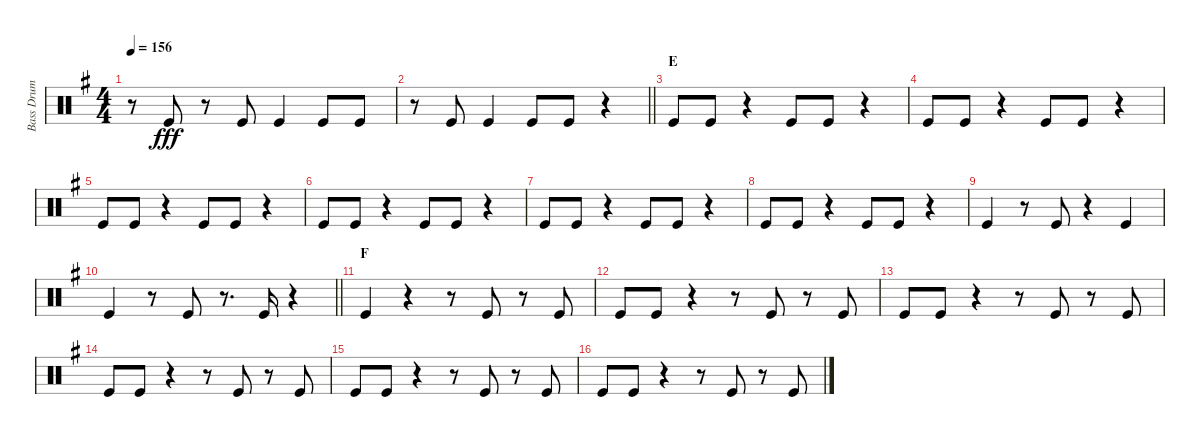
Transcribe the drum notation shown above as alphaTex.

\track ("Bass Drum" "Bass Drum") {instrument percussion}
\staff {score}
\articulation defaults
\ts (4 4)
\tempo 156
\clef neutral
\ks g
r.8{dy fff} "Kick (hit)".8 r.8 "Kick (hit)".8 "Kick (hit)".4 "Kick (hit)".8 "Kick (hit)".8 |
\barLineRight lightlight
r.8 "Kick (hit)".8 "Kick (hit)".4 "Kick (hit)".8 "Kick (hit)".8 r.4 |
\section ("" "E")
"Kick (hit)".8 "Kick (hit)".8 r.4 "Kick (hit)".8 "Kick (hit)".8 r.4 |
"Kick (hit)".8 "Kick (hit)".8 r.4 "Kick (hit)".8 "Kick (hit)".8 r.4 |
"Kick (hit)".8 "Kick (hit)".8 r.4 "Kick (hit)".8 "Kick (hit)".8 r.4 |
"Kick (hit)".8 "Kick (hit)".8 r.4 "Kick (hit)".8 "Kick (hit)".8 r.4 |
"Kick (hit)".8 "Kick (hit)".8 r.4 "Kick (hit)".8 "Kick (hit)".8 r.4 |
"Kick (hit)".8 "Kick (hit)".8 r.4 "Kick (hit)".8 "Kick (hit)".8 r.4 |
"Kick (hit)".4 r.8 "Kick (hit)".8 r.4 "Kick (hit)".4 |
\barLineRight lightlight "Kick (hit)".4
r.8 "Kick (hit)".8 r.8{d} "Kick (hit)".16 r.4 |
\section ("" "F")
"Kick (hit)".4 r.4 r.8 "Kick (hit)".8 r.8 "Kick (hit)".8 |
"Kick (hit)".8 "Kick (hit)".8 r.4 r.8 "Kick (hit)".8 r.8 "Kick (hit)".8 |
"Kick (hit)".8 "Kick (hit)".8 r.4 r.8 "Kick (hit)".8 r.8 "Kick (hit)".8 |
"Kick (hit)".8 "Kick (hit)".8 r.4 r.8 "Kick (hit)".8 r.8 "Kick (hit)".8 |
"Kick (hit)".8 "Kick (hit)".8 r.4 r.8 "Kick (hit)".8 r.8 "Kick (hit)".8 |
"Kick (hit)".8 "Kick (hit)".8 r.4 r.8 "Kick (hit)".8 r.8 "Kick (hit)".8
